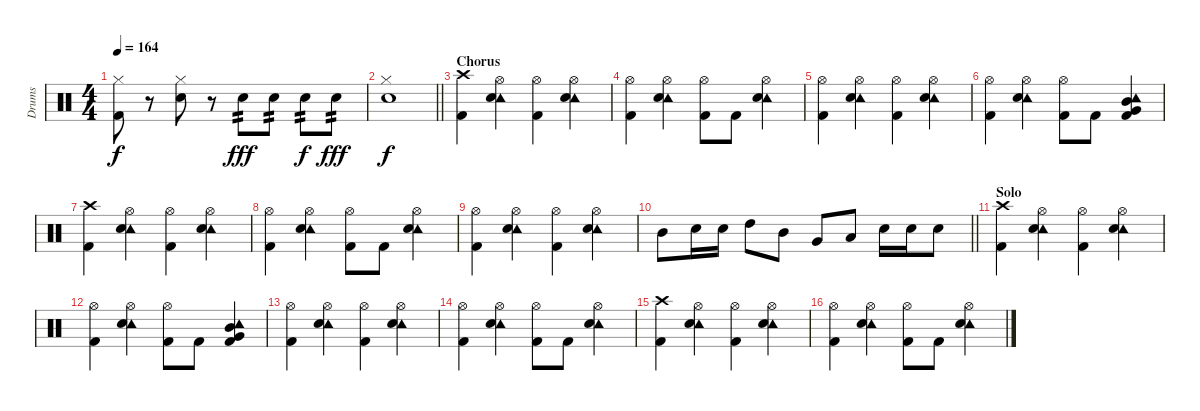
\track ("Drums" "Drums") {instrument percussion}
\staff {score}
\articulation defaults
\ts (4 4)
\tempo 164
\clef neutral
\ks c
("Hi-Hat (closed)" "Kick (hit) 2").8{dy f} r.8 ("Hi-Hat (closed)" "Snare (hit) 2").8 r.8 "Snare (hit) 2".8{tp 2 dy fff} "Snare (hit) 2".8{tp 2} "Snare (hit) 2".8{tp 2 dy f} "Snare (hit) 2".8{tp 2 dy fff} |
\barLineRight lightlight
("Hi-Hat (closed)" "Snare (hit) 2").1{dy f} |
\section ("" "Chorus")
("Crash high (hit)" "Kick (hit) 2").4 ("Tambourine (hit)" "Hi-Hat (open)" "Snare (hit) 2").4 ("Hi-Hat (open)" "Kick (hit) 2").4 ("Tambourine (hit)" "Hi-Hat (open)" "Snare (hit) 2").4 |
("Hi-Hat (open)" "Kick (hit) 2").4 ("Tambourine (hit)" "Hi-Hat (open)" "Snare (hit) 2").4 ("Hi-Hat (open)" "Kick (hit) 2").8 "Kick (hit) 2".8 ("Tambourine (hit)" "Hi-Hat (open)" "Snare (hit) 2").4 |
("Hi-Hat (open)" "Kick (hit) 2").4 ("Tambourine (hit)" "Hi-Hat (open)" "Snare (hit) 2").4 ("Hi-Hat (open)" "Kick (hit) 2").4 ("Tambourine (hit)" "Hi-Hat (open)" "Snare (hit) 2").4 |
("Hi-Hat (open)" "Kick (hit) 2").4 ("Tambourine (hit)" "Hi-Hat (open)" "Snare (hit) 2").4 ("Hi-Hat (open)" "Kick (hit) 2").8 "Kick (hit) 2".8 ("Tambourine (hit)" "Mid Tom (hit)" "Very Low Tom (hit)" "Kick (hit) 2").4 |
("Crash high (hit)" "Kick (hit) 2").4 ("Tambourine (hit)" "Hi-Hat (open)" "Snare (hit) 2").4 ("Hi-Hat (open)" "Kick (hit) 2").4 ("Tambourine (hit)" "Hi-Hat (open)" "Snare (hit) 2").4 |
("Hi-Hat (open)" "Kick (hit) 2").4 ("Tambourine (hit)" "Hi-Hat (open)" "Snare (hit) 2").4 ("Hi-Hat (open)" "Kick (hit) 2").8 "Kick (hit) 2".8 ("Tambourine (hit)" "Hi-Hat (open)" "Snare (hit) 2").4 |
("Hi-Hat (open)" "Kick (hit) 2").4 ("Tambourine (hit)" "Hi-Hat (open)" "Snare (hit) 2").4 ("Hi-Hat (open)" "Kick (hit) 2").4 ("Tambourine (hit)" "Hi-Hat (open)" "Snare (hit) 2").4 |
\barLineRight lightlight "Mid Tom (hit)".8 "Snare (hit) 2".16 "Snare (hit) 2".16 "High Tom (hit)".8 "Mid Tom (hit)".8 "Very Low Tom (hit)".8 "Low Tom (hit)".8 "Snare (hit) 2".16 "Snare (hit) 2".16 "Snare (hit) 2".8
|
\section ("" "Solo")
("Crash high (hit)" "Kick (hit) 2").4 ("Tambourine (hit)" "Hi-Hat (open)" "Snare (hit) 2").4 ("Hi-Hat (open)" "Kick (hit) 2").4 ("Tambourine (hit)" "Hi-Hat (open)" "Snare (hit) 2").4 |
("Hi-Hat (open)" "Kick (hit) 2").4 ("Tambourine (hit)" "Hi-Hat (open)" "Snare (hit) 2").4 ("Hi-Hat (open)" "Kick (hit) 2").8 "Kick (hit) 2".8 ("Tambourine (hit)" "Mid Tom (hit)" "Very Low Tom (hit)" "Kick (hit) 2").4 |
("Hi-Hat (open)" "Kick (hit) 2").4 ("Tambourine (hit)" "Hi-Hat (open)" "Snare (hit) 2").4 ("Hi-Hat (open)" "Kick (hit) 2").4 ("Tambourine (hit)" "Hi-Hat (open)" "Snare (hit) 2").4 |
("Hi-Hat (open)" "Kick (hit) 2").4 ("Tambourine (hit)" "Hi-Hat (open)" "Snare (hit) 2").4 ("Hi-Hat (open)" "Kick (hit) 2").8 "Kick (hit) 2".8 ("Tambourine (hit)" "Hi-Hat (open)" "Snare (hit) 2").4 |
("Crash high (hit)" "Kick (hit) 2").4 ("Tambourine (hit)" "Hi-Hat (open)" "Snare (hit) 2").4 ("Hi-Hat (open)" "Kick (hit) 2").4 ("Tambourine (hit)" "Hi-Hat (open)" "Snare (hit) 2").4 |
("Hi-Hat (open)" "Kick (hit) 2").4 ("Tambourine (hit)" "Hi-Hat (open)" "Snare (hit) 2").4 ("Hi-Hat (open)" "Kick (hit) 2").8 "Kick (hit) 2".8 ("Tambourine (hit)" "Hi-Hat (open)" "Snare (hit) 2").4
